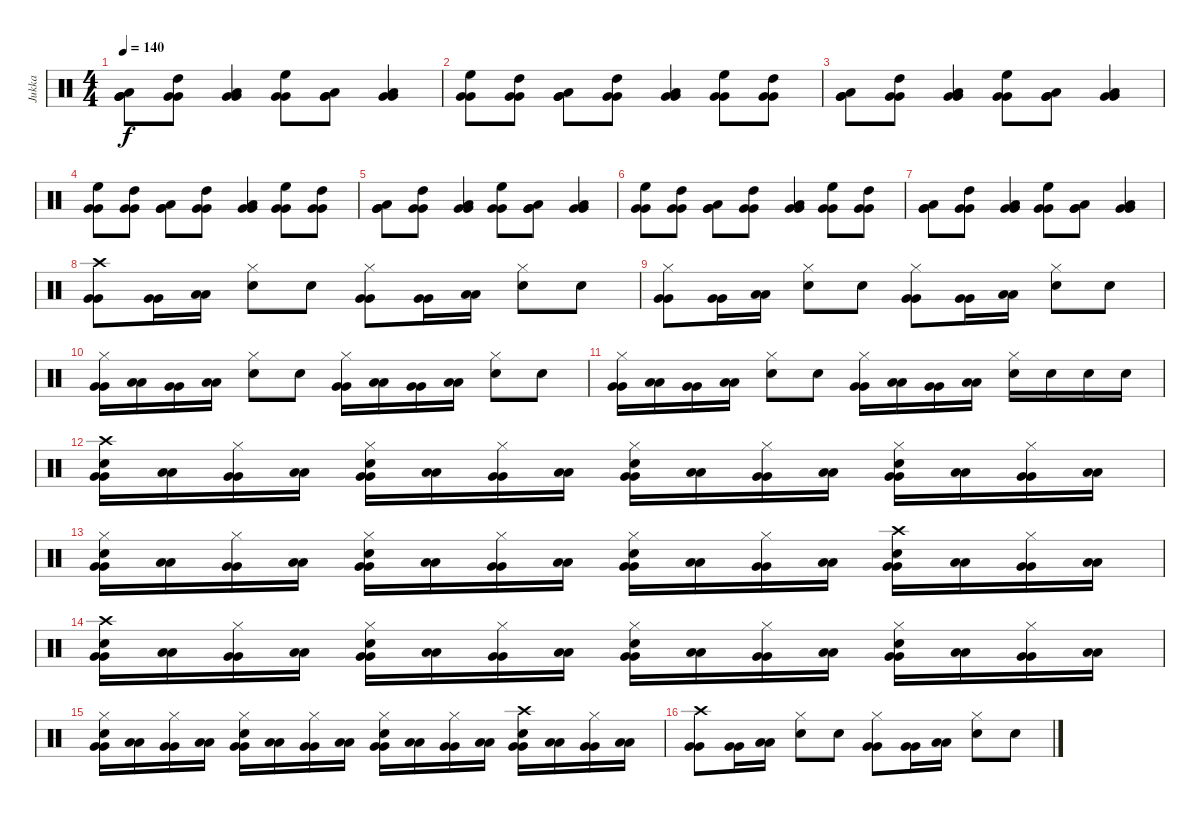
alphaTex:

\track ("Jukka" "Jukka") {instrument percussion}
\staff {score}
\articulation defaults
\ts (4 4)
\tempo 140
\clef neutral
\ks c
("Low Tom (hit)" "Very Low Tom (hit)" "Very Low Tom (hit)").8{dy f} ("High Tom (hit)" "Very Low Tom (hit)" "Very Low Tom (hit)").8 ("Low Tom (hit)" "Very Low Tom (hit)" "Very Low Tom (hit)").4 ("High Floor Tom (hit)" "Very Low Tom (hit)" "Very Low Tom (hit)").8 ("Low Tom (hit)" "Very Low Tom (hit)" "Very Low Tom (hit)").8 ("Low Tom (hit)" "Very Low Tom (hit)" "Very Low Tom (hit)").4 |
("High Floor Tom (hit)" "Very Low Tom (hit)" "Very Low Tom (hit)").8 ("High Tom (hit)" "Very Low Tom (hit)" "Very Low Tom (hit)").8 ("Low Tom (hit)" "Very Low Tom (hit)" "Very Low Tom (hit)").8 ("High Tom (hit)" "Very Low Tom (hit)" "Very Low Tom (hit)").8 ("Low Tom (hit)" "Very Low Tom (hit)" "Very Low Tom (hit)").4 ("High Floor Tom (hit)" "Very Low Tom (hit)" "Very Low Tom (hit)").8 ("High Tom (hit)" "Very Low Tom (hit)" "Very Low Tom (hit)").8 |
("Low Tom (hit)" "Very Low Tom (hit)" "Very Low Tom (hit)").8 ("High Tom (hit)" "Very Low Tom (hit)" "Very Low Tom (hit)").8 ("Low Tom (hit)" "Very Low Tom (hit)" "Very Low Tom (hit)").4 ("High Floor Tom (hit)" "Very Low Tom (hit)" "Very Low Tom (hit)").8 ("Low Tom (hit)" "Very Low Tom (hit)" "Very Low Tom (hit)").8 ("Low Tom (hit)" "Very Low Tom (hit)" "Very Low Tom (hit)").4 |
("High Floor Tom (hit)" "Very Low Tom (hit)" "Very Low Tom (hit)").8 ("High Tom (hit)" "Very Low Tom (hit)" "Very Low Tom (hit)").8 ("Low Tom (hit)" "Very Low Tom (hit)" "Very Low Tom (hit)").8 ("High Tom (hit)" "Very Low Tom (hit)" "Very Low Tom (hit)").8 ("Low Tom (hit)" "Very Low Tom (hit)" "Very Low Tom (hit)").4 ("High Floor Tom (hit)" "Very Low Tom (hit)" "Very Low Tom (hit)").8 ("High Tom (hit)" "Very Low Tom (hit)" "Very Low Tom (hit)").8 |
("Low Tom (hit)" "Very Low Tom (hit)" "Very Low Tom (hit)").8 ("High Tom (hit)" "Very Low Tom (hit)" "Very Low Tom (hit)").8 ("Low Tom (hit)" "Very Low Tom (hit)" "Very Low Tom (hit)").4 ("High Floor Tom (hit)" "Very Low Tom (hit)" "Very Low Tom (hit)").8 ("Low Tom (hit)" "Very Low Tom (hit)" "Very Low Tom (hit)").8 ("Low Tom (hit)" "Very Low Tom (hit)" "Very Low Tom (hit)").4 |
("High Floor Tom (hit)" "Very Low Tom (hit)" "Very Low Tom (hit)").8 ("High Tom (hit)" "Very Low Tom (hit)" "Very Low Tom (hit)").8 ("Low Tom (hit)" "Very Low Tom (hit)" "Very Low Tom (hit)").8 ("High Tom (hit)" "Very Low Tom (hit)" "Very Low Tom (hit)").8 ("Low Tom (hit)" "Very Low Tom (hit)" "Very Low Tom (hit)").4 ("High Floor Tom (hit)" "Very Low Tom (hit)" "Very Low Tom (hit)").8 ("High Tom (hit)" "Very Low Tom (hit)" "Very Low Tom (hit)").8 |
("Low Tom (hit)" "Very Low Tom (hit)" "Very Low Tom (hit)").8 ("High Tom (hit)" "Very Low Tom (hit)" "Very Low Tom (hit)").8 ("Low Tom (hit)" "Very Low Tom (hit)" "Very Low Tom (hit)").4 ("High Floor Tom (hit)" "Very Low Tom (hit)" "Very Low Tom (hit)").8 ("Low Tom (hit)" "Very Low Tom (hit)" "Very Low Tom (hit)").8 ("Low Tom (hit)" "Very Low Tom (hit)" "Very Low Tom (hit)").4 |
("Crash high (hit)" "Very Low Tom (hit)" "Very Low Tom (hit)").8 ("Very Low Tom (hit)" "Very Low Tom (hit)").16 ("Low Floor Tom (hit)" "Low Floor Tom (hit)").16 ("Hi-Hat (closed)" "Electric Snare (hit)").8 "Electric Snare (hit)".8 ("Hi-Hat (closed)" "Very Low Tom (hit)" "Very Low Tom (hit)").8 ("Very Low Tom (hit)" "Very Low Tom (hit)").16 ("Low Floor Tom (hit)" "Low Floor Tom (hit)").16 ("Hi-Hat (closed)" "Electric Snare (hit)").8 "Electric Snare (hit)".8 |
("Hi-Hat (closed)" "Very Low Tom (hit)" "Very Low Tom (hit)").8 ("Very Low Tom (hit)" "Very Low Tom (hit)").16 ("Low Floor Tom (hit)" "Low Floor Tom (hit)").16 ("Hi-Hat (closed)" "Electric Snare (hit)").8 "Electric Snare (hit)".8 ("Hi-Hat (closed)" "Very Low Tom (hit)" "Very Low Tom (hit)").8 ("Very Low Tom (hit)" "Very Low Tom (hit)").16 ("Low Floor Tom (hit)" "Low Floor Tom (hit)").16 ("Hi-Hat (closed)" "Electric Snare (hit)").8 "Electric Snare (hit)".8 |
("Hi-Hat (closed)" "Very Low Tom (hit)" "Very Low Tom (hit)").16 ("Low Floor Tom (hit)" "Low Floor Tom (hit)").16 ("Very Low Tom (hit)" "Very Low Tom (hit)").16 ("Low Floor Tom (hit)" "Low Floor Tom (hit)").16 ("Hi-Hat (closed)" "Electric Snare (hit)").8 "Electric Snare (hit)".8 ("Hi-Hat (closed)" "Very Low Tom (hit)" "Very Low Tom (hit)").16 ("Low Floor Tom (hit)" "Low Floor Tom (hit)").16 ("Very Low Tom (hit)" "Very Low Tom (hit)").16 ("Low Floor Tom (hit)" "Low Floor Tom (hit)").16 ("Hi-Hat (closed)" "Electric Snare (hit)").8 "Electric Snare (hit)".8 |
("Hi-Hat (closed)" "Very Low Tom (hit)" "Very Low Tom (hit)").16 ("Low Floor Tom (hit)" "Low Floor Tom (hit)").16 ("Very Low Tom (hit)" "Very Low Tom (hit)").16 ("Low Floor Tom (hit)" "Low Floor Tom (hit)").16 ("Hi-Hat (closed)" "Electric Snare (hit)").8 "Electric Snare (hit)".8 ("Hi-Hat (closed)" "Very Low Tom (hit)" "Very Low Tom (hit)").16 ("Low Floor Tom (hit)" "Low Floor Tom (hit)").16 ("Very Low Tom (hit)" "Very Low Tom (hit)").16 ("Low Floor Tom (hit)" "Low Floor Tom (hit)").16 ("Hi-Hat (closed)" "Electric Snare (hit)").16 "Electric Snare (hit)".16 "Electric Snare (hit)".16 "Electric Snare (hit)".16 |
("Crash high (hit)" "Electric Snare (hit)" "Very Low Tom (hit)" "Very Low Tom (hit)").16 ("Low Floor Tom (hit)" "Low Floor Tom (hit)").16 ("Hi-Hat (closed)" "Very Low Tom (hit)" "Very Low Tom (hit)").16 ("Low Floor Tom (hit)" "Low Floor Tom (hit)").16 ("Hi-Hat (closed)" "Electric Snare (hit)" "Very Low Tom (hit)" "Very Low Tom (hit)").16 ("Low Floor Tom (hit)" "Low Floor Tom (hit)").16 ("Hi-Hat (closed)" "Very Low Tom (hit)" "Very Low Tom (hit)").16 ("Low Floor Tom (hit)" "Low Floor Tom (hit)").16 ("Hi-Hat (closed)" "Electric Snare (hit)" "Very Low Tom (hit)" "Very Low Tom (hit)").16 ("Low Floor Tom (hit)" "Low Floor Tom (hit)").16 ("Hi-Hat (closed)" "Very Low Tom (hit)" "Very Low Tom (hit)").16 ("Low Floor Tom (hit)" "Low Floor Tom (hit)").16 ("Hi-Hat (closed)" "Electric Snare (hit)" "Very Low Tom (hit)" "Very Low Tom (hit)").16 ("Low Floor Tom (hit)" "Low Floor Tom (hit)").16 ("Hi-Hat (closed)" "Very Low Tom (hit)" "Very Low Tom (hit)").16 ("Low Floor Tom (hit)" "Low Floor Tom (hit)").16 |
("Hi-Hat (closed)" "Electric Snare (hit)" "Very Low Tom (hit)" "Very Low Tom (hit)").16 ("Low Floor Tom (hit)" "Low Floor Tom (hit)").16 ("Hi-Hat (closed)" "Very Low Tom (hit)" "Very Low Tom (hit)").16 ("Low Floor Tom (hit)" "Low Floor Tom (hit)").16 ("Hi-Hat (closed)" "Electric Snare (hit)" "Very Low Tom (hit)" "Very Low Tom (hit)").16 ("Low Floor Tom (hit)" "Low Floor Tom (hit)").16 ("Hi-Hat (closed)" "Very Low Tom (hit)" "Very Low Tom (hit)").16 ("Low Floor Tom (hit)" "Low Floor Tom (hit)").16 ("Hi-Hat (closed)" "Electric Snare (hit)" "Very Low Tom (hit)" "Very Low Tom (hit)").16 ("Low Floor Tom (hit)" "Low Floor Tom (hit)").16 ("Hi-Hat (closed)" "Very Low Tom (hit)" "Very Low Tom (hit)").16 ("Low Floor Tom (hit)" "Low Floor Tom (hit)").16 ("Crash high (hit)" "Electric Snare (hit)" "Very Low Tom (hit)" "Very Low Tom (hit)").16 ("Low Floor Tom (hit)" "Low Floor Tom (hit)").16 ("Hi-Hat (closed)" "Very Low Tom (hit)" "Very Low Tom (hit)").16 ("Low Floor Tom (hit)" "Low Floor Tom (hit)").16 |
("Crash high (hit)" "Electric Snare (hit)" "Very Low Tom (hit)" "Very Low Tom (hit)").16 ("Low Floor Tom (hit)" "Low Floor Tom (hit)").16 ("Hi-Hat (closed)" "Very Low Tom (hit)" "Very Low Tom (hit)").16 ("Low Floor Tom (hit)" "Low Floor Tom (hit)").16 ("Hi-Hat (closed)" "Electric Snare (hit)" "Very Low Tom (hit)" "Very Low Tom (hit)").16 ("Low Floor Tom (hit)" "Low Floor Tom (hit)").16 ("Hi-Hat (closed)" "Very Low Tom (hit)" "Very Low Tom (hit)").16 ("Low Floor Tom (hit)" "Low Floor Tom (hit)").16 ("Hi-Hat (closed)" "Electric Snare (hit)" "Very Low Tom (hit)" "Very Low Tom (hit)").16 ("Low Floor Tom (hit)" "Low Floor Tom (hit)").16 ("Hi-Hat (closed)" "Very Low Tom (hit)" "Very Low Tom (hit)").16 ("Low Floor Tom (hit)" "Low Floor Tom (hit)").16 ("Hi-Hat (closed)" "Electric Snare (hit)" "Very Low Tom (hit)" "Very Low Tom (hit)").16 ("Low Floor Tom (hit)" "Low Floor Tom (hit)").16 ("Hi-Hat (closed)" "Very Low Tom (hit)" "Very Low Tom (hit)").16 ("Low Floor Tom (hit)" "Low Floor Tom (hit)").16 |
("Hi-Hat (closed)" "Electric Snare (hit)" "Very Low Tom (hit)" "Very Low Tom (hit)").16 ("Low Floor Tom (hit)" "Low Floor Tom (hit)").16 ("Hi-Hat (closed)" "Very Low Tom (hit)" "Very Low Tom (hit)").16 ("Low Floor Tom (hit)" "Low Floor Tom (hit)").16 ("Hi-Hat (closed)" "Electric Snare (hit)" "Very Low Tom (hit)" "Very Low Tom (hit)").16 ("Low Floor Tom (hit)" "Low Floor Tom (hit)").16 ("Hi-Hat (closed)" "Very Low Tom (hit)" "Very Low Tom (hit)").16 ("Low Floor Tom (hit)" "Low Floor Tom (hit)").16 ("Hi-Hat (closed)" "Electric Snare (hit)" "Very Low Tom (hit)" "Very Low Tom (hit)").16 ("Low Floor Tom (hit)" "Low Floor Tom (hit)").16 ("Hi-Hat (closed)" "Very Low Tom (hit)" "Very Low Tom (hit)").16 ("Low Floor Tom (hit)" "Low Floor Tom (hit)").16 ("Crash high (hit)" "Electric Snare (hit)" "Very Low Tom (hit)" "Very Low Tom (hit)").16 ("Low Floor Tom (hit)" "Low Floor Tom (hit)").16 ("Hi-Hat (closed)" "Very Low Tom (hit)" "Very Low Tom (hit)").16 ("Low Floor Tom (hit)" "Low Floor Tom (hit)").16 |
("Crash high (hit)" "Very Low Tom (hit)" "Very Low Tom (hit)").8 ("Very Low Tom (hit)" "Very Low Tom (hit)").16 ("Low Floor Tom (hit)" "Low Floor Tom (hit)").16 ("Hi-Hat (closed)" "Electric Snare (hit)").8 "Electric Snare (hit)".8 ("Hi-Hat (closed)" "Very Low Tom (hit)" "Very Low Tom (hit)").8 ("Very Low Tom (hit)" "Very Low Tom (hit)").16 ("Low Floor Tom (hit)" "Low Floor Tom (hit)").16 ("Hi-Hat (closed)" "Electric Snare (hit)").8 "Electric Snare (hit)".8
